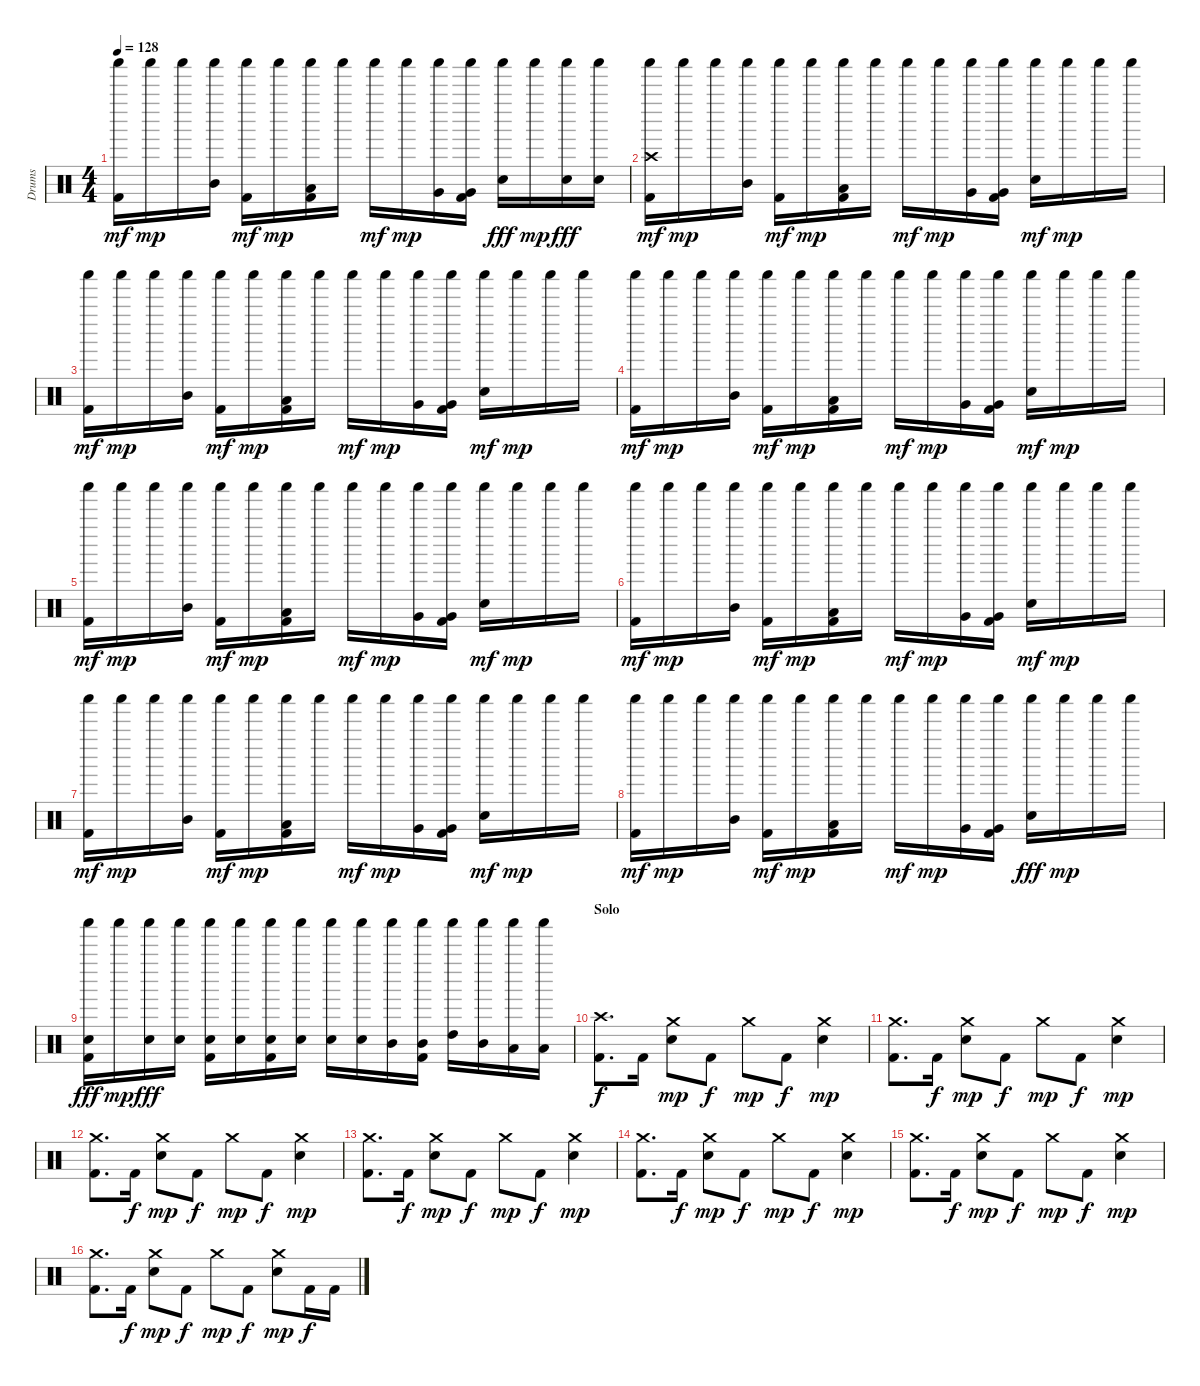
\track ("Drums" "Drums") {instrument percussion}
\staff {score}
\articulation defaults
\ts (4 4)
\tempo 128
\clef neutral
\ks c
("Shaker (hit)" "Kick (hit) 2").16{dy mf} "Shaker (hit)".16{dy mp} "Shaker (hit)".16 ("Shaker (hit)" "Mid Tom (hit)").16 ("Shaker (hit)" "Kick (hit) 2").16{dy mf} "Shaker (hit)".16{dy mp} ("Shaker (hit)" "Low Tom (hit)" "Kick (hit) 2").16 "Shaker (hit)".16 "Shaker (hit)".16{dy mf} "Shaker (hit)".16{dy mp} ("Shaker (hit)" "Very Low Tom (hit)").16 ("Shaker (hit)" "Very Low Tom (hit)" "Kick (hit) 2").16 ("Shaker (hit)" "Electric Snare (hit)").16{dy fff} "Shaker (hit)".16{dy mp} ("Shaker (hit)" "Electric Snare (hit)").16{dy fff} ("Shaker (hit)" "Electric Snare (hit)").16 |
("Crash high (hit)" "Shaker (hit)" "Kick (hit) 2").16{dy mf} "Shaker (hit)".16{dy mp} "Shaker (hit)".16 ("Shaker (hit)" "Mid Tom (hit)").16 ("Shaker (hit)" "Kick (hit) 2").16{dy mf} "Shaker (hit)".16{dy mp} ("Shaker (hit)" "Low Tom (hit)" "Kick (hit) 2").16 "Shaker (hit)".16 "Shaker (hit)".16{dy mf} "Shaker (hit)".16{dy mp} ("Shaker (hit)" "Very Low Tom (hit)").16 ("Shaker (hit)" "Very Low Tom (hit)" "Kick (hit) 2").16 ("Shaker (hit)" "Electric Snare (hit)").16{dy mf} "Shaker (hit)".16{dy mp} "Shaker (hit)".16 "Shaker (hit)".16 |
("Shaker (hit)" "Kick (hit) 2").16{dy mf} "Shaker (hit)".16{dy mp} "Shaker (hit)".16 ("Shaker (hit)" "Mid Tom (hit)").16 ("Shaker (hit)" "Kick (hit) 2").16{dy mf} "Shaker (hit)".16{dy mp} ("Shaker (hit)" "Low Tom (hit)" "Kick (hit) 2").16 "Shaker (hit)".16 "Shaker (hit)".16{dy mf} "Shaker (hit)".16{dy mp} ("Shaker (hit)" "Very Low Tom (hit)").16 ("Shaker (hit)" "Very Low Tom (hit)" "Kick (hit) 2").16 ("Shaker (hit)" "Electric Snare (hit)").16{dy mf} "Shaker (hit)".16{dy mp} "Shaker (hit)".16 "Shaker (hit)".16 |
("Shaker (hit)" "Kick (hit) 2").16{dy mf} "Shaker (hit)".16{dy mp} "Shaker (hit)".16 ("Shaker (hit)" "Mid Tom (hit)").16 ("Shaker (hit)" "Kick (hit) 2").16{dy mf} "Shaker (hit)".16{dy mp} ("Shaker (hit)" "Low Tom (hit)" "Kick (hit) 2").16 "Shaker (hit)".16 "Shaker (hit)".16{dy mf} "Shaker (hit)".16{dy mp} ("Shaker (hit)" "Very Low Tom (hit)").16 ("Shaker (hit)" "Very Low Tom (hit)" "Kick (hit) 2").16 ("Shaker (hit)" "Electric Snare (hit)").16{dy mf} "Shaker (hit)".16{dy mp} "Shaker (hit)".16 "Shaker (hit)".16 |
("Shaker (hit)" "Kick (hit) 2").16{dy mf} "Shaker (hit)".16{dy mp} "Shaker (hit)".16 ("Shaker (hit)" "Mid Tom (hit)").16 ("Shaker (hit)" "Kick (hit) 2").16{dy mf} "Shaker (hit)".16{dy mp} ("Shaker (hit)" "Low Tom (hit)" "Kick (hit) 2").16 "Shaker (hit)".16 "Shaker (hit)".16{dy mf} "Shaker (hit)".16{dy mp} ("Shaker (hit)" "Very Low Tom (hit)").16 ("Shaker (hit)" "Very Low Tom (hit)" "Kick (hit) 2").16 ("Shaker (hit)" "Electric Snare (hit)").16{dy mf} "Shaker (hit)".16{dy mp} "Shaker (hit)".16 "Shaker (hit)".16 |
("Shaker (hit)" "Kick (hit) 2").16{dy mf} "Shaker (hit)".16{dy mp} "Shaker (hit)".16 ("Shaker (hit)" "Mid Tom (hit)").16 ("Shaker (hit)" "Kick (hit) 2").16{dy mf} "Shaker (hit)".16{dy mp} ("Shaker (hit)" "Low Tom (hit)" "Kick (hit) 2").16 "Shaker (hit)".16 "Shaker (hit)".16{dy mf} "Shaker (hit)".16{dy mp} ("Shaker (hit)" "Very Low Tom (hit)").16 ("Shaker (hit)" "Very Low Tom (hit)" "Kick (hit) 2").16 ("Shaker (hit)" "Electric Snare (hit)").16{dy mf} "Shaker (hit)".16{dy mp} "Shaker (hit)".16 "Shaker (hit)".16 |
("Shaker (hit)" "Kick (hit) 2").16{dy mf} "Shaker (hit)".16{dy mp} "Shaker (hit)".16 ("Shaker (hit)" "Mid Tom (hit)").16 ("Shaker (hit)" "Kick (hit) 2").16{dy mf} "Shaker (hit)".16{dy mp} ("Shaker (hit)" "Low Tom (hit)" "Kick (hit) 2").16 "Shaker (hit)".16 "Shaker (hit)".16{dy mf} "Shaker (hit)".16{dy mp} ("Shaker (hit)" "Very Low Tom (hit)").16 ("Shaker (hit)" "Very Low Tom (hit)" "Kick (hit) 2").16 ("Shaker (hit)" "Electric Snare (hit)").16{dy mf} "Shaker (hit)".16{dy mp} "Shaker (hit)".16 "Shaker (hit)".16 |
("Shaker (hit)" "Kick (hit) 2").16{dy mf} "Shaker (hit)".16{dy mp} "Shaker (hit)".16 ("Shaker (hit)" "Mid Tom (hit)").16 ("Shaker (hit)" "Kick (hit) 2").16{dy mf} "Shaker (hit)".16{dy mp} ("Shaker (hit)" "Low Tom (hit)" "Kick (hit) 2").16 "Shaker (hit)".16 "Shaker (hit)".16{dy mf} "Shaker (hit)".16{dy mp} ("Shaker (hit)" "Very Low Tom (hit)").16 ("Shaker (hit)" "Very Low Tom (hit)" "Kick (hit) 2").16 ("Shaker (hit)" "Electric Snare (hit)").16{dy fff} "Shaker (hit)".16{dy mp} "Shaker (hit)".16 "Shaker (hit)".16 |
("Shaker (hit)" "Electric Snare (hit)" "Kick (hit) 2").16{dy fff} "Shaker (hit)".16{dy mp} ("Shaker (hit)" "Electric Snare (hit)").16{dy fff} ("Shaker (hit)" "Electric Snare (hit)").16 ("Shaker (hit)" "Electric Snare (hit)" "Kick (hit) 2").16 ("Shaker (hit)" "Electric Snare (hit)").16 ("Shaker (hit)" "Electric Snare (hit)" "Kick (hit) 2").16 ("Shaker (hit)" "Electric Snare (hit)").16 ("Shaker (hit)" "Electric Snare (hit)").16 ("Shaker (hit)" "Electric Snare (hit)").16 ("Shaker (hit)" "Mid Tom (hit)").16 ("Shaker (hit)" "Mid Tom (hit)" "Kick (hit) 2").16 ("Shaker (hit)" "High Tom (hit)").16 ("Shaker (hit)" "Mid Tom (hit)").16 ("Shaker (hit)" "Low Tom (hit)").16 ("Shaker (hit)" "Low Tom (hit)").16 |
\section ("" "Solo")
("Crash high (hit)" "Kick (hit) 2").8{d dy f} "Kick (hit) 2".16 ("Crash medium (hit)" "Electric Snare (hit)").8{dy mp} "Kick (hit) 2".8{dy f} "Crash medium (hit)".8{dy mp} "Kick (hit) 2".8{dy f} ("Crash medium (hit)" "Electric Snare (hit)").4{dy mp} |
("Crash medium (hit)" "Kick (hit) 2").8{d} "Kick (hit) 2".16{dy f} ("Crash medium (hit)" "Electric Snare (hit)").8{dy mp} "Kick (hit) 2".8{dy f} "Crash medium (hit)".8{dy mp} "Kick (hit) 2".8{dy f} ("Crash medium (hit)" "Electric Snare (hit)").4{dy mp} |
("Crash medium (hit)" "Kick (hit) 2").8{d} "Kick (hit) 2".16{dy f} ("Crash medium (hit)" "Electric Snare (hit)").8{dy mp} "Kick (hit) 2".8{dy f} "Crash medium (hit)".8{dy mp} "Kick (hit) 2".8{dy f} ("Crash medium (hit)" "Electric Snare (hit)").4{dy mp} |
("Crash medium (hit)" "Kick (hit) 2").8{d} "Kick (hit) 2".16{dy f} ("Crash medium (hit)" "Electric Snare (hit)").8{dy mp} "Kick (hit) 2".8{dy f} "Crash medium (hit)".8{dy mp} "Kick (hit) 2".8{dy f} ("Crash medium (hit)" "Electric Snare (hit)").4{dy mp} |
("Crash medium (hit)" "Kick (hit) 2").8{d} "Kick (hit) 2".16{dy f} ("Crash medium (hit)" "Electric Snare (hit)").8{dy mp} "Kick (hit) 2".8{dy f} "Crash medium (hit)".8{dy mp} "Kick (hit) 2".8{dy f} ("Crash medium (hit)" "Electric Snare (hit)").4{dy mp} |
("Crash medium (hit)" "Kick (hit) 2").8{d} "Kick (hit) 2".16{dy f} ("Crash medium (hit)" "Electric Snare (hit)").8{dy mp} "Kick (hit) 2".8{dy f} "Crash medium (hit)".8{dy mp} "Kick (hit) 2".8{dy f} ("Crash medium (hit)" "Electric Snare (hit)").4{dy mp} |
("Crash medium (hit)" "Kick (hit) 2").8{d} "Kick (hit) 2".16{dy f} ("Crash medium (hit)" "Electric Snare (hit)").8{dy mp} "Kick (hit) 2".8{dy f} "Crash medium (hit)".8{dy mp} "Kick (hit) 2".8{dy f} ("Crash medium (hit)" "Electric Snare (hit)").8{dy mp} "Kick (hit) 2".16{dy f} "Kick (hit) 2".16
